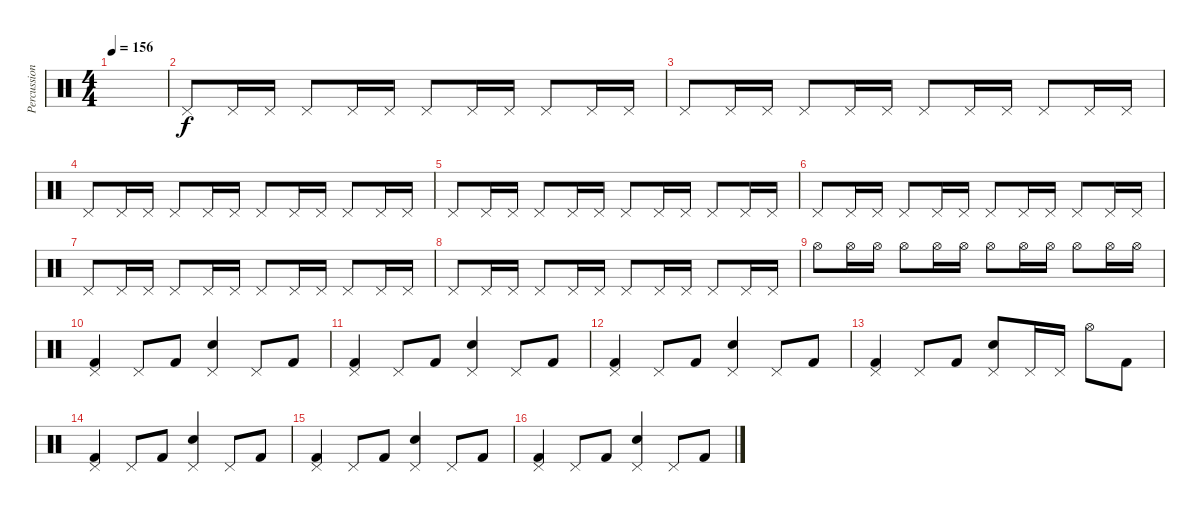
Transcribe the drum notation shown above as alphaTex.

\track ("Percussions" "Percussion") {instrument percussion}
\staff {score}
\articulation defaults
\ts (4 4)
\tempo 156
\clef neutral
\ks c
|
"Pedal Hi-Hat (hit)".8 "Pedal Hi-Hat (hit)".16 "Pedal Hi-Hat (hit)".16 "Pedal Hi-Hat (hit)".8 "Pedal Hi-Hat (hit)".16 "Pedal Hi-Hat (hit)".16 "Pedal Hi-Hat (hit)".8 "Pedal Hi-Hat (hit)".16 "Pedal Hi-Hat (hit)".16 "Pedal Hi-Hat (hit)".8 "Pedal Hi-Hat (hit)".16 "Pedal Hi-Hat (hit)".16 |
"Pedal Hi-Hat (hit)".8 "Pedal Hi-Hat (hit)".16 "Pedal Hi-Hat (hit)".16 "Pedal Hi-Hat (hit)".8 "Pedal Hi-Hat (hit)".16 "Pedal Hi-Hat (hit)".16 "Pedal Hi-Hat (hit)".8 "Pedal Hi-Hat (hit)".16 "Pedal Hi-Hat (hit)".16 "Pedal Hi-Hat (hit)".8 "Pedal Hi-Hat (hit)".16 "Pedal Hi-Hat (hit)".16 |
"Pedal Hi-Hat (hit)".8 "Pedal Hi-Hat (hit)".16 "Pedal Hi-Hat (hit)".16 "Pedal Hi-Hat (hit)".8 "Pedal Hi-Hat (hit)".16 "Pedal Hi-Hat (hit)".16 "Pedal Hi-Hat (hit)".8 "Pedal Hi-Hat (hit)".16 "Pedal Hi-Hat (hit)".16 "Pedal Hi-Hat (hit)".8 "Pedal Hi-Hat (hit)".16 "Pedal Hi-Hat (hit)".16 |
"Pedal Hi-Hat (hit)".8 "Pedal Hi-Hat (hit)".16 "Pedal Hi-Hat (hit)".16 "Pedal Hi-Hat (hit)".8 "Pedal Hi-Hat (hit)".16 "Pedal Hi-Hat (hit)".16 "Pedal Hi-Hat (hit)".8 "Pedal Hi-Hat (hit)".16 "Pedal Hi-Hat (hit)".16 "Pedal Hi-Hat (hit)".8 "Pedal Hi-Hat (hit)".16 "Pedal Hi-Hat (hit)".16 |
"Pedal Hi-Hat (hit)".8 "Pedal Hi-Hat (hit)".16 "Pedal Hi-Hat (hit)".16 "Pedal Hi-Hat (hit)".8 "Pedal Hi-Hat (hit)".16 "Pedal Hi-Hat (hit)".16 "Pedal Hi-Hat (hit)".8 "Pedal Hi-Hat (hit)".16 "Pedal Hi-Hat (hit)".16 "Pedal Hi-Hat (hit)".8 "Pedal Hi-Hat (hit)".16 "Pedal Hi-Hat (hit)".16 |
"Pedal Hi-Hat (hit)".8 "Pedal Hi-Hat (hit)".16 "Pedal Hi-Hat (hit)".16 "Pedal Hi-Hat (hit)".8 "Pedal Hi-Hat (hit)".16 "Pedal Hi-Hat (hit)".16 "Pedal Hi-Hat (hit)".8 "Pedal Hi-Hat (hit)".16 "Pedal Hi-Hat (hit)".16 "Pedal Hi-Hat (hit)".8 "Pedal Hi-Hat (hit)".16 "Pedal Hi-Hat (hit)".16 |
"Pedal Hi-Hat (hit)".8 "Pedal Hi-Hat (hit)".16 "Pedal Hi-Hat (hit)".16 "Pedal Hi-Hat (hit)".8 "Pedal Hi-Hat (hit)".16 "Pedal Hi-Hat (hit)".16 "Pedal Hi-Hat (hit)".8 "Pedal Hi-Hat (hit)".16 "Pedal Hi-Hat (hit)".16 "Pedal Hi-Hat (hit)".8 "Pedal Hi-Hat (hit)".16 "Pedal Hi-Hat (hit)".16 |
"Hi-Hat (open)".8 "Hi-Hat (open)".16 "Hi-Hat (open)".16 "Hi-Hat (open)".8 "Hi-Hat (open)".16 "Hi-Hat (open)".16 "Hi-Hat (open)".8 "Hi-Hat (open)".16 "Hi-Hat (open)".16 "Hi-Hat (open)".8 "Hi-Hat (open)".16 "Hi-Hat (open)".16 |
("Pedal Hi-Hat (hit)" "Kick (hit) 2").4 "Pedal Hi-Hat (hit)".8 "Kick (hit) 2".8 ("Pedal Hi-Hat (hit)" "Electric Snare (hit)").4 "Pedal Hi-Hat (hit)".8 "Kick (hit) 2".8 |
("Pedal Hi-Hat (hit)" "Kick (hit) 2").4 "Pedal Hi-Hat (hit)".8 "Kick (hit) 2".8 ("Pedal Hi-Hat (hit)" "Electric Snare (hit)").4 "Pedal Hi-Hat (hit)".8 "Kick (hit) 2".8 |
("Pedal Hi-Hat (hit)" "Kick (hit) 2").4 "Pedal Hi-Hat (hit)".8 "Kick (hit) 2".8 ("Pedal Hi-Hat (hit)" "Electric Snare (hit)").4 "Pedal Hi-Hat (hit)".8 "Kick (hit) 2".8 |
("Pedal Hi-Hat (hit)" "Kick (hit) 2").4 "Pedal Hi-Hat (hit)".8 "Kick (hit) 2".8 ("Pedal Hi-Hat (hit)" "Electric Snare (hit)").8 "Pedal Hi-Hat (hit)".16 "Pedal Hi-Hat (hit)".16 "Hi-Hat (open)".8 "Kick (hit) 2".8 |
("Pedal Hi-Hat (hit)" "Kick (hit) 2").4 "Pedal Hi-Hat (hit)".8 "Kick (hit) 2".8 ("Pedal Hi-Hat (hit)" "Electric Snare (hit)").4 "Pedal Hi-Hat (hit)".8 "Kick (hit) 2".8 |
("Pedal Hi-Hat (hit)" "Kick (hit) 2").4 "Pedal Hi-Hat (hit)".8 "Kick (hit) 2".8 ("Pedal Hi-Hat (hit)" "Electric Snare (hit)").4 "Pedal Hi-Hat (hit)".8 "Kick (hit) 2".8 |
("Pedal Hi-Hat (hit)" "Kick (hit) 2").4 "Pedal Hi-Hat (hit)".8 "Kick (hit) 2".8 ("Pedal Hi-Hat (hit)" "Electric Snare (hit)").4 "Pedal Hi-Hat (hit)".8 "Kick (hit) 2".8
